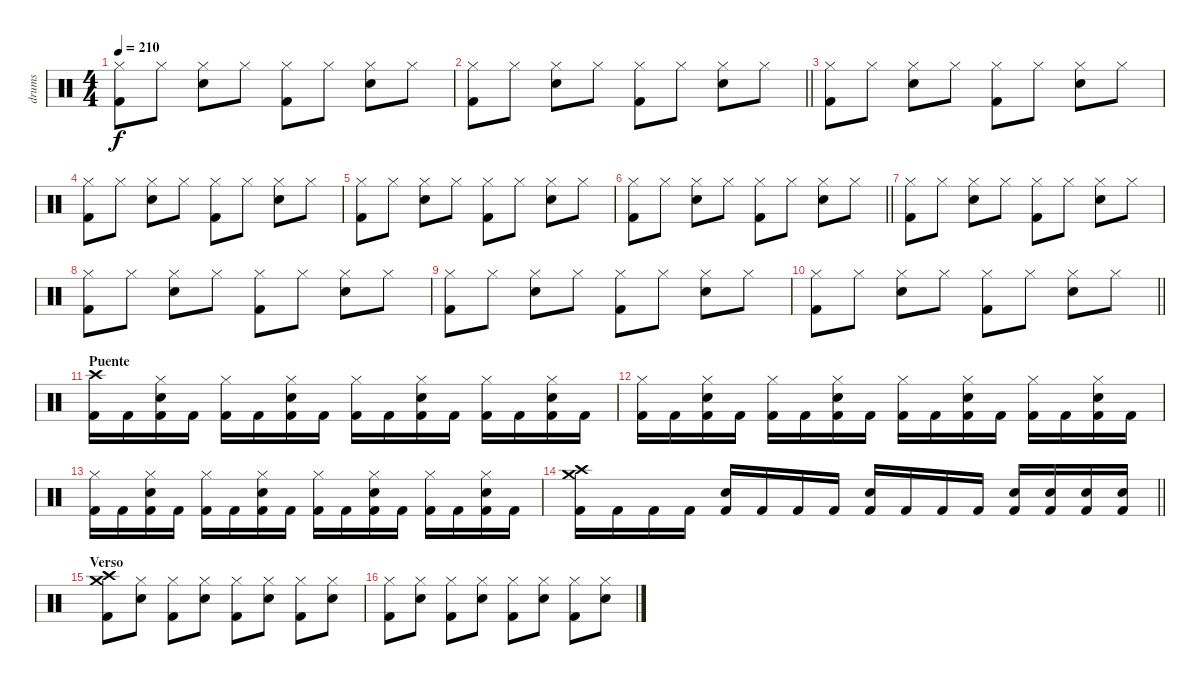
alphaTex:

\track ("drums" "drums") {instrument percussion}
\staff {score}
\articulation defaults
\ts (4 4)
\tempo 210
\clef neutral
\ks c
("Hi-Hat (closed)" "Kick (hit) 2").8{dy f} "Hi-Hat (closed)".8 ("Hi-Hat (closed)" "Electric Snare (hit)").8 "Hi-Hat (closed)".8 ("Hi-Hat (closed)" "Kick (hit) 2").8 "Hi-Hat (closed)".8 ("Hi-Hat (closed)" "Electric Snare (hit)").8 "Hi-Hat (closed)".8 |
\barLineRight lightlight
("Hi-Hat (closed)" "Kick (hit) 2").8 "Hi-Hat (closed)".8 ("Hi-Hat (closed)" "Electric Snare (hit)").8 "Hi-Hat (closed)".8 ("Hi-Hat (closed)" "Kick (hit) 2").8 "Hi-Hat (closed)".8 ("Hi-Hat (closed)" "Electric Snare (hit)").8 "Hi-Hat (closed)".8 |
("Hi-Hat (closed)" "Kick (hit) 2").8 "Hi-Hat (closed)".8 ("Hi-Hat (closed)" "Electric Snare (hit)").8 "Hi-Hat (closed)".8 ("Hi-Hat (closed)" "Kick (hit) 2").8 "Hi-Hat (closed)".8 ("Hi-Hat (closed)" "Electric Snare (hit)").8 "Hi-Hat (closed)".8 |
("Hi-Hat (closed)" "Kick (hit) 2").8 "Hi-Hat (closed)".8 ("Hi-Hat (closed)" "Electric Snare (hit)").8 "Hi-Hat (closed)".8 ("Hi-Hat (closed)" "Kick (hit) 2").8 "Hi-Hat (closed)".8 ("Hi-Hat (closed)" "Electric Snare (hit)").8 "Hi-Hat (closed)".8 |
("Hi-Hat (closed)" "Kick (hit) 2").8 "Hi-Hat (closed)".8 ("Hi-Hat (closed)" "Electric Snare (hit)").8 "Hi-Hat (closed)".8 ("Hi-Hat (closed)" "Kick (hit) 2").8 "Hi-Hat (closed)".8 ("Hi-Hat (closed)" "Electric Snare (hit)").8 "Hi-Hat (closed)".8 |
\barLineRight lightlight
("Hi-Hat (closed)" "Kick (hit) 2").8 "Hi-Hat (closed)".8 ("Hi-Hat (closed)" "Electric Snare (hit)").8 "Hi-Hat (closed)".8 ("Hi-Hat (closed)" "Kick (hit) 2").8 "Hi-Hat (closed)".8 ("Hi-Hat (closed)" "Electric Snare (hit)").8 "Hi-Hat (closed)".8 |
("Hi-Hat (closed)" "Kick (hit) 2").8 "Hi-Hat (closed)".8 ("Hi-Hat (closed)" "Electric Snare (hit)").8 "Hi-Hat (closed)".8 ("Hi-Hat (closed)" "Kick (hit) 2").8 "Hi-Hat (closed)".8 ("Hi-Hat (closed)" "Electric Snare (hit)").8 "Hi-Hat (closed)".8 |
("Hi-Hat (closed)" "Kick (hit) 2").8 "Hi-Hat (closed)".8 ("Hi-Hat (closed)" "Electric Snare (hit)").8 "Hi-Hat (closed)".8 ("Hi-Hat (closed)" "Kick (hit) 2").8 "Hi-Hat (closed)".8 ("Hi-Hat (closed)" "Electric Snare (hit)").8 "Hi-Hat (closed)".8 |
("Hi-Hat (closed)" "Kick (hit) 2").8 "Hi-Hat (closed)".8 ("Hi-Hat (closed)" "Electric Snare (hit)").8 "Hi-Hat (closed)".8 ("Hi-Hat (closed)" "Kick (hit) 2").8 "Hi-Hat (closed)".8 ("Hi-Hat (closed)" "Electric Snare (hit)").8 "Hi-Hat (closed)".8 |
\barLineRight lightlight
("Hi-Hat (closed)" "Kick (hit) 2").8 "Hi-Hat (closed)".8 ("Hi-Hat (closed)" "Electric Snare (hit)").8 "Hi-Hat (closed)".8 ("Hi-Hat (closed)" "Kick (hit) 2").8 "Hi-Hat (closed)".8 ("Hi-Hat (closed)" "Electric Snare (hit)").8 "Hi-Hat (closed)".8 |
\section ("" "Puente")
("Crash high (hit)" "Kick (hit) 2").16 "Kick (hit) 2".16 ("Hi-Hat (closed)" "Electric Snare (hit)" "Kick (hit) 2").16 "Kick (hit) 2".16 ("Hi-Hat (closed)" "Kick (hit) 2").16 "Kick (hit) 2".16 ("Hi-Hat (closed)" "Electric Snare (hit)" "Kick (hit) 2").16 "Kick (hit) 2".16 ("Hi-Hat (closed)" "Kick (hit) 2").16 "Kick (hit) 2".16 ("Hi-Hat (closed)" "Electric Snare (hit)" "Kick (hit) 2").16 "Kick (hit) 2".16 ("Hi-Hat (closed)" "Kick (hit) 2").16 "Kick (hit) 2".16 ("Hi-Hat (closed)" "Electric Snare (hit)" "Kick (hit) 2").16 "Kick (hit) 2".16 |
("Hi-Hat (closed)" "Kick (hit) 2").16 "Kick (hit) 2".16 ("Hi-Hat (closed)" "Electric Snare (hit)" "Kick (hit) 2").16 "Kick (hit) 2".16 ("Hi-Hat (closed)" "Kick (hit) 2").16 "Kick (hit) 2".16 ("Hi-Hat (closed)" "Electric Snare (hit)" "Kick (hit) 2").16 "Kick (hit) 2".16 ("Hi-Hat (closed)" "Kick (hit) 2").16 "Kick (hit) 2".16 ("Hi-Hat (closed)" "Electric Snare (hit)" "Kick (hit) 2").16 "Kick (hit) 2".16 ("Hi-Hat (closed)" "Kick (hit) 2").16 "Kick (hit) 2".16 ("Hi-Hat (closed)" "Electric Snare (hit)" "Kick (hit) 2").16 "Kick (hit) 2".16 |
("Hi-Hat (closed)" "Kick (hit) 2").16 "Kick (hit) 2".16 ("Hi-Hat (closed)" "Electric Snare (hit)" "Kick (hit) 2").16 "Kick (hit) 2".16 ("Hi-Hat (closed)" "Kick (hit) 2").16 "Kick (hit) 2".16 ("Hi-Hat (closed)" "Electric Snare (hit)" "Kick (hit) 2").16 "Kick (hit) 2".16 ("Hi-Hat (closed)" "Kick (hit) 2").16 "Kick (hit) 2".16 ("Hi-Hat (closed)" "Electric Snare (hit)" "Kick (hit) 2").16 "Kick (hit) 2".16 ("Hi-Hat (closed)" "Kick (hit) 2").16 "Kick (hit) 2".16 ("Hi-Hat (closed)" "Electric Snare (hit)" "Kick (hit) 2").16 "Kick (hit) 2".16 |
\barLineRight lightlight
("Crash high (hit)" "Crash medium (hit)" "Kick (hit) 2").16 "Kick (hit) 2".16 "Kick (hit) 2".16 "Kick (hit) 2".16 ("Electric Snare (hit)" "Kick (hit) 2").16 "Kick (hit) 2".16 "Kick (hit) 2".16 "Kick (hit) 2".16 ("Electric Snare (hit)" "Kick (hit) 2").16 "Kick (hit) 2".16 "Kick (hit) 2".16 "Kick (hit) 2".16 ("Electric Snare (hit)" "Kick (hit) 2").16 ("Electric Snare (hit)" "Kick (hit) 2").16 ("Electric Snare (hit)" "Kick (hit) 2").16 ("Electric Snare (hit)" "Kick (hit) 2").16 |
\section ("" "Verso")
("Crash high (hit)" "Crash medium (hit)" "Kick (hit) 2").8 ("Hi-Hat (closed)" "Electric Snare (hit)").8 ("Hi-Hat (closed)" "Kick (hit) 2").8 ("Hi-Hat (closed)" "Electric Snare (hit)").8 ("Hi-Hat (closed)" "Kick (hit) 2").8 ("Hi-Hat (closed)" "Electric Snare (hit)").8 ("Hi-Hat (closed)" "Kick (hit) 2").8 ("Hi-Hat (closed)" "Electric Snare (hit)").8 |
("Hi-Hat (closed)" "Kick (hit) 2").8 ("Hi-Hat (closed)" "Electric Snare (hit)").8 ("Hi-Hat (closed)" "Kick (hit) 2").8 ("Hi-Hat (closed)" "Electric Snare (hit)").8 ("Hi-Hat (closed)" "Kick (hit) 2").8 ("Hi-Hat (closed)" "Electric Snare (hit)").8 ("Hi-Hat (closed)" "Kick (hit) 2").8 ("Hi-Hat (closed)" "Electric Snare (hit)").8
